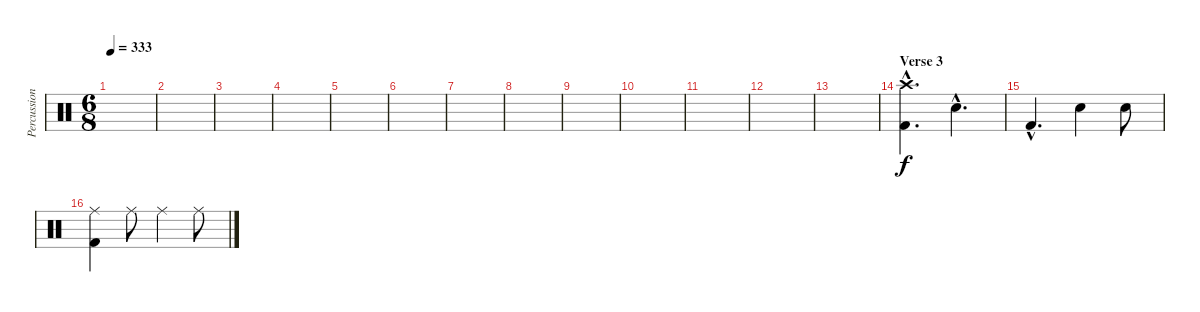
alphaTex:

\track ("Percussion" "Percussion") {instrument percussion}
\staff {score}
\articulation defaults
\ts (6 8)
\tempo 333
\clef neutral
\ks c
|
|
|
|
|
|
|
|
|
|
|
|
|
\section ("" "Verse 3")
("Crash high (hit)"{hac} "Kick (hit) 2"{hac}).4{d} "Snare (hit) 2"{hac}.4{d} |
"Kick (hit) 2"{hac}.4{d} "Electric Snare (hit)".4 "Electric Snare (hit)".8 |
("Ride (middle)" "Kick (hit) 2").4 "Ride (middle)".8 "Ride (middle)".4 "Ride (middle)".8
